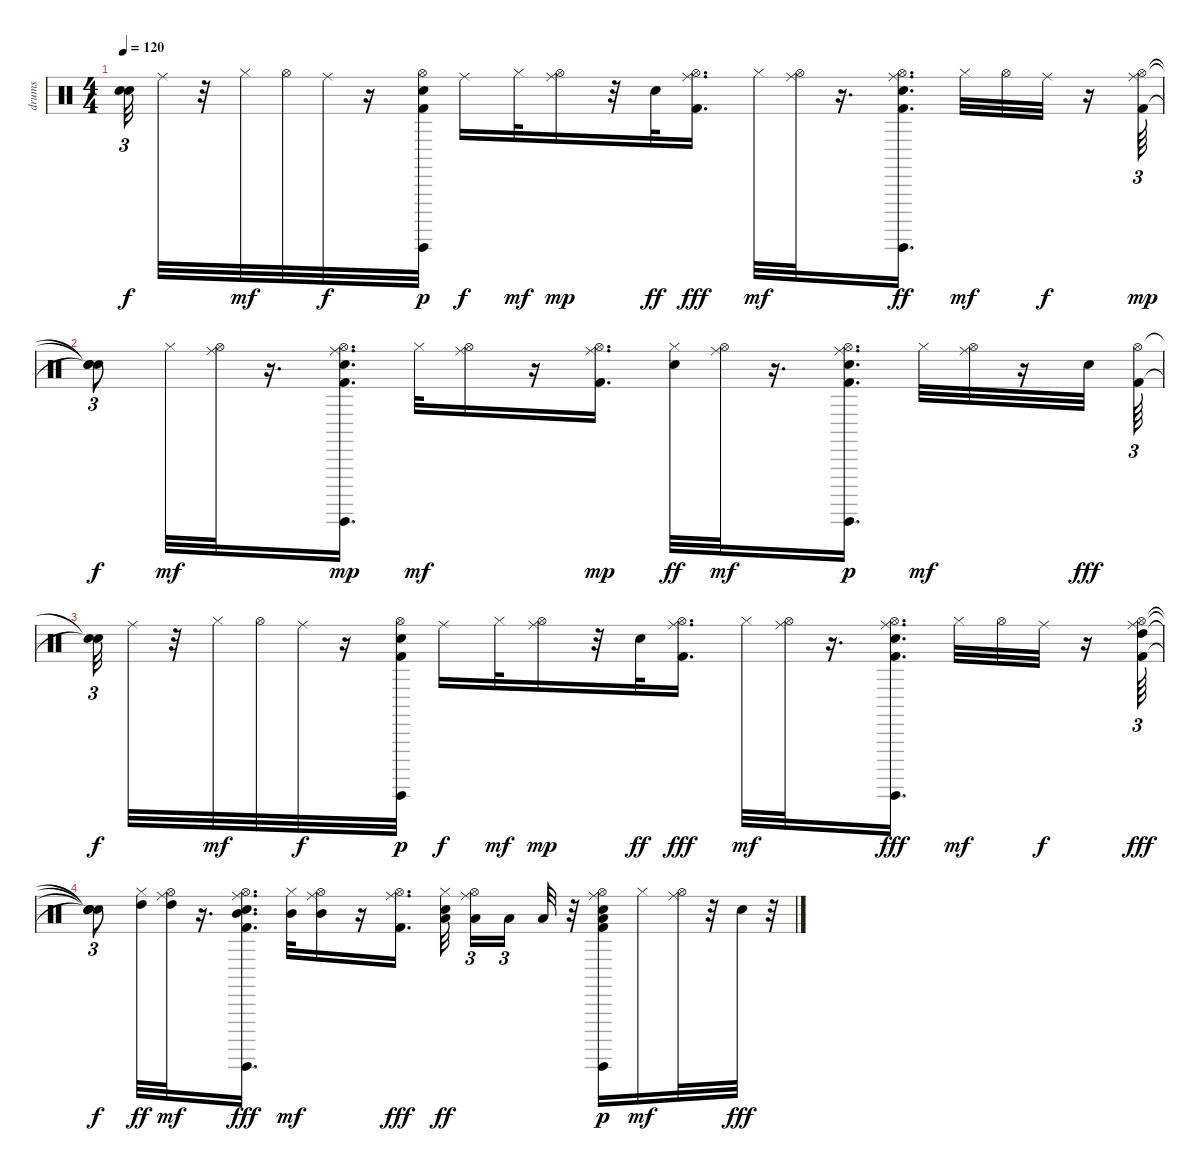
\track ("drums                               " "drums     ") {instrument percussion}
\staff {score}
\articulation defaults
\ts (4 4)
\tempo 120
\clef neutral
\ks c
("Snare (hit)"{t} "Snare (hit)"{t}).32{tu (3 2) dy f} "Ride (middle)".32 r.32 "Hi-Hat (closed)".32{dy mf} "Hi-Hat (open)".32 "Ride (middle)".32{dy f} r.16 ("Electric Snare (hit)" "Guiro (hit)" "Kick (hit) 2" "Hi-Hat (open)").32{dy p} "Ride (middle)".16{dy f} "Hi-Hat (closed)".32{dy mf} ("Hi-Hat (open)" "Ride (middle)").16{dy mp} r.32 "Electric Snare (hit)".32{dy ff} ("Ride (middle)" "Hi-Hat (open)" "Kick (hit) 2").16{d dy fff} "Hi-Hat (closed)".32{dy mf} ("Hi-Hat (open)" "Ride (middle)").32 r.16{d} ("Hi-Hat (open)" "Kick (hit) 2" "Electric Snare (hit)" "Guiro (hit)" "Ride (middle)").16{d dy ff} "Hi-Hat (closed)".32{dy mf} "Hi-Hat (open)".32 "Ride (middle)".32{dy f} r.16 ("Kick (hit) 2" "Hi-Hat (open)" "Ride (middle)").64{tu (3 2) dy mp} |
("Snare (hit)"{t} "Snare (hit)"{t} "Snare (hit)"{t}).8{tu (3 2) dy f} "Hi-Hat (closed)".32{dy mf} ("Ride (middle)" "Hi-Hat (open)").32 r.16{d} ("Electric Snare (hit)" "Kick (hit) 2" "Hi-Hat (open)" "Guiro (hit)" "Ride (middle)").16{d dy mp} "Hi-Hat (closed)".32{dy mf} ("Ride (middle)" "Hi-Hat (open)").16 r.16 ("Ride (middle)" "Kick (hit) 2" "Hi-Hat (open)").16{d dy mp} ("Hi-Hat (closed)" "Electric Snare (hit)").32{dy ff} ("Ride (middle)" "Hi-Hat (open)").32{dy mf} r.16{d} ("Ride (middle)" "Kick (hit) 2" "Guiro (hit)" "Electric Snare (hit)" "Hi-Hat (open)").16{d dy p} "Hi-Hat (closed)".32{dy mf} ("Ride (middle)" "Hi-Hat (open)").32 r.16 "Electric Snare (hit)".32{dy fff} ("Hi-Hat (open)" "Kick (hit) 2").64{tu (3 2)} |
("Snare (hit)"{t} "Snare (hit)"{t}).32{tu (3 2) dy f} "Ride (middle)".32 r.32 "Hi-Hat (closed)".32{dy mf} "Hi-Hat (open)".32 "Ride (middle)".32{dy f} r.16 ("Kick (hit) 2" "Guiro (hit)" "Electric Snare (hit)" "Hi-Hat (open)").32{dy p} "Ride (middle)".16{dy f} "Hi-Hat (closed)".32{dy mf} ("Hi-Hat (open)" "Ride (middle)").16{dy mp} r.32 "Electric Snare (hit)".32{dy ff} ("Ride (middle)" "Hi-Hat (open)" "Kick (hit) 2").16{d dy fff} "Hi-Hat (closed)".32{dy mf} ("Hi-Hat (open)" "Ride (middle)").32 r.16{d} ("Hi-Hat (open)" "Electric Snare (hit)" "Kick (hit) 2" "Guiro (hit)" "Ride (middle)").16{d dy fff} "Hi-Hat (closed)".32{dy mf} "Hi-Hat (open)".32 "Ride (middle)".32{dy f} r.16 ("Hi-Hat (open)" "High Tom (hit)" "Kick (hit) 2" "Ride (middle)").64{tu (3 2) dy fff} |
("Snare (hit)"{t} "Snare (hit)"{t} "Snare (hit)"{t} "Snare (hit)"{t}).8{tu (3 2) dy f} ("Hi-Hat (closed)" "High Tom (hit)").32{dy ff} ("Ride (middle)" "High Tom (hit)" "Hi-Hat (open)").32{dy mf} r.16{d} ("Guiro (hit)" "Mid Tom (hit)" "Electric Snare (hit)" "Hi-Hat (open)" "Kick (hit) 2" "Ride (middle)").16{d dy fff} ("Mid Tom (hit)" "Hi-Hat (closed)").32{dy mf} ("Ride (middle)" "Mid Tom (hit)" "Hi-Hat (open)").16 r.16 ("Ride (middle)" "Hi-Hat (open)" "Kick (hit) 2").16{d dy fff} ("Hi-Hat (closed)" "Low Tom (hit)" "Electric Snare (hit)").32{dy ff beam splitsecondary} ("Ride (middle)" "Hi-Hat (open)" "Low Tom (hit)").16{tu (3 2)} "Low Tom (hit)".16{tu (3 2) beam splitsecondary} "Low Tom (hit)".32 r.32 ("Ride (middle)" "Electric Snare (hit)" "Kick (hit) 2" "Guiro (hit)" "Low Floor Tom (hit)" "Hi-Hat (open)").16{dy p} "Hi-Hat (closed)".16{dy mf} ("Ride (middle)" "Hi-Hat (open)").32 r.32 "Electric Snare (hit)".32{dy fff} r.32{tu (3 2)}
